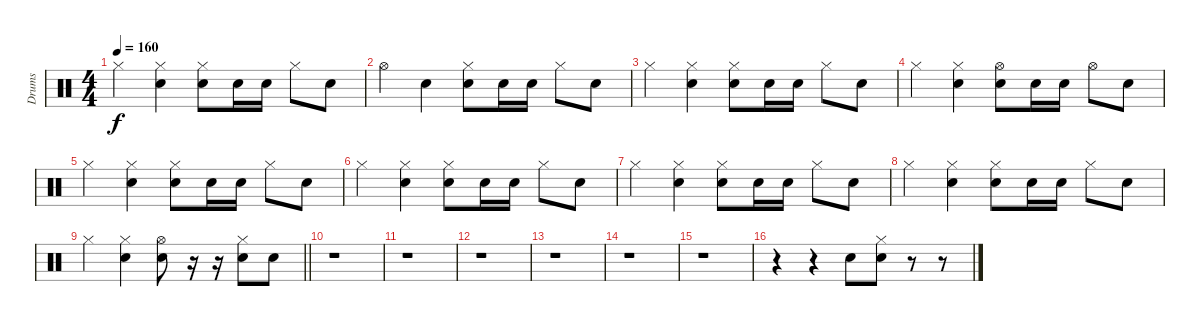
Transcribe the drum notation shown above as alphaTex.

\track ("Drums" "Drums") {instrument percussion}
\staff {score}
\articulation defaults
\ts (4 4)
\tempo 160
\clef neutral
\ks c "Hi-Hat (closed)".4{dy f}
("Hi-Hat (closed)" "Electric Snare (hit)").4 ("Hi-Hat (closed)" "Electric Snare (hit)").8 "Electric Snare (hit)".16 "Electric Snare (hit)".16 "Hi-Hat (closed)".8 "Electric Snare (hit)".8 |
"Hi-Hat (open)".4 "Electric Snare (hit)".4 ("Hi-Hat (closed)" "Electric Snare (hit)").8 "Electric Snare (hit)".16 "Electric Snare (hit)".16 "Hi-Hat (closed)".8 "Electric Snare (hit)".8 |
"Hi-Hat (closed)".4 ("Hi-Hat (closed)" "Electric Snare (hit)").4 ("Hi-Hat (closed)" "Electric Snare (hit)").8 "Electric Snare (hit)".16 "Electric Snare (hit)".16 "Hi-Hat (closed)".8 "Electric Snare (hit)".8 |
"Hi-Hat (closed)".4 ("Hi-Hat (closed)" "Electric Snare (hit)").4 ("Hi-Hat (open)" "Electric Snare (hit)").8 "Electric Snare (hit)".16 "Electric Snare (hit)".16 "Hi-Hat (open)".8 "Electric Snare (hit)".8 |
"Hi-Hat (closed)".4 ("Hi-Hat (closed)" "Electric Snare (hit)").4 ("Hi-Hat (closed)" "Electric Snare (hit)").8 "Electric Snare (hit)".16 "Electric Snare (hit)".16 "Hi-Hat (closed)".8 "Electric Snare (hit)".8 |
"Hi-Hat (closed)".4 ("Hi-Hat (closed)" "Electric Snare (hit)").4 ("Hi-Hat (closed)" "Electric Snare (hit)").8 "Electric Snare (hit)".16 "Electric Snare (hit)".16 "Hi-Hat (closed)".8 "Electric Snare (hit)".8 |
"Hi-Hat (closed)".4 ("Hi-Hat (closed)" "Electric Snare (hit)").4 ("Hi-Hat (closed)" "Electric Snare (hit)").8 "Electric Snare (hit)".16 "Electric Snare (hit)".16 "Hi-Hat (closed)".8 "Electric Snare (hit)".8 |
"Hi-Hat (closed)".4 ("Hi-Hat (closed)" "Electric Snare (hit)").4 ("Hi-Hat (closed)" "Electric Snare (hit)").8 "Electric Snare (hit)".16 "Electric Snare (hit)".16 "Hi-Hat (closed)".8 "Electric Snare (hit)".8 |
\barLineRight lightlight "Hi-Hat (closed)".4
("Hi-Hat (closed)" "Electric Snare (hit)").4 ("Hi-Hat (open)" "Electric Snare (hit)").8 r.16 r.16 ("Hi-Hat (closed)" "Electric Snare (hit)").8 "Electric Snare (hit)".8 |
r.1 |
r.1 |
r.1 |
r.1 |
r.1 |
r.1 |
r.4 r.4 "Electric Snare (hit)".8 ("Hi-Hat (closed)" "Electric Snare (hit)").8 r.8 r.8
